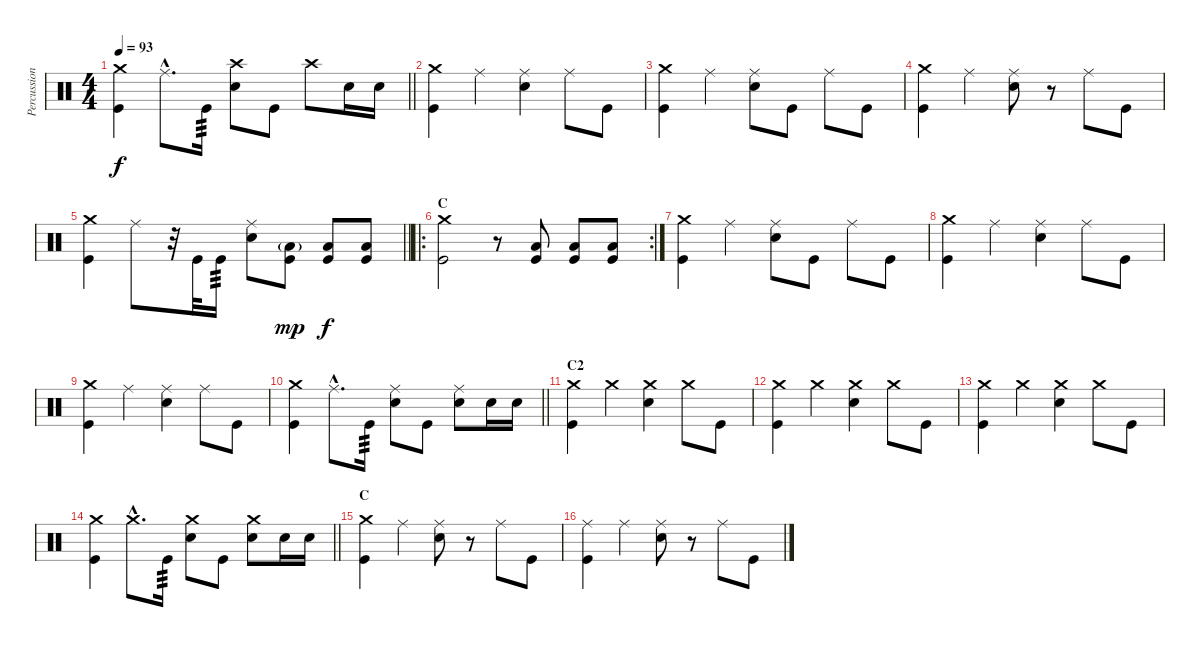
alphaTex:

\track ("Percussion" "Percussion") {instrument percussion}
\staff {score}
\articulation defaults
\ts (4 4)
\tempo 93
\clef neutral
\barLineRight lightlight
\ks c
("Kick (hit)" "Crash medium (hit)").4{dy f} "Ride (middle)"{hac}.8{d} "Kick (hit)".16{tp 3} ("Crash high (hit)" "Snare (hit) 2").8 "Kick (hit)".8 "Crash high (hit)".8 "Snare (hit) 2".16 "Snare (hit) 2".16 |
("Kick (hit)" "Crash medium (hit)").4 "Ride (middle)".4 ("Ride (middle)" "Snare (hit) 2").4 "Ride (middle)".8 "Kick (hit)".8 |
("Kick (hit)" "Crash medium (hit)").4 "Ride (middle)".4 ("Ride (middle)" "Snare (hit) 2").8 "Kick (hit)".8 "Ride (middle)".8 "Kick (hit)".8 |
("Kick (hit)" "Crash medium (hit)").4 "Ride (middle)".4 ("Ride (middle)" "Snare (hit) 2").8 r.8 "Ride (middle)".8 "Kick (hit)".8 |
\barLineRight lightlight
("Kick (hit)" "Crash medium (hit)").4 "Ride (middle)".8 r.32 "Kick (hit)".32 "Kick (hit)".16{tp 3} ("Ride (middle)" "Snare (hit) 2").8 ("Kick (hit)" "Low Floor Tom (hit)"{g}).8{dy mp} ("Kick (hit)" "Low Floor Tom (hit)").8{dy f} ("Kick (hit)" "Low Floor Tom (hit)").8 |
\ro
\rc 2
\section ("" "C")
("Kick (hit)" "Crash medium (hit)").2 r.8 ("Low Floor Tom (hit)" "Kick (hit)").8 ("Low Floor Tom (hit)" "Kick (hit)").8 ("Low Floor Tom (hit)" "Kick (hit)").8 |
("Kick (hit)" "Crash medium (hit)").4 "Ride (middle)".4 ("Snare (hit) 2" "Ride (middle)").8 "Kick (hit)".8 "Ride (middle)".8 "Kick (hit)".8 |
("Kick (hit)" "Crash medium (hit)").4 "Ride (middle)".4 ("Snare (hit) 2" "Ride (middle)").4 "Ride (middle)".8 "Kick (hit)".8 |
("Kick (hit)" "Crash medium (hit)").4 "Ride (middle)".4 ("Snare (hit) 2" "Ride (middle)").4 "Ride (middle)".8 "Kick (hit)".8 |
\barLineRight lightlight
("Kick (hit)" "Crash medium (hit)").4 "Ride (middle)"{hac}.8{d} "Kick (hit)".16{tp 3} ("Ride (middle)" "Snare (hit) 2").8 "Kick (hit)".8 ("Ride (middle)" "Snare (hit) 2").8 "Snare (hit) 2".16 "Snare (hit) 2".16 |
\section ("" "C2")
("Kick (hit)" "Crash medium (hit)").4 "Crash medium (hit)".4 ("Snare (hit) 2" "Crash medium (hit)").4 "Crash medium (hit)".8 "Kick (hit)".8 |
("Kick (hit)" "Crash medium (hit)").4 "Crash medium (hit)".4 ("Snare (hit) 2" "Crash medium (hit)").4 "Crash medium (hit)".8 "Kick (hit)".8 |
("Kick (hit)" "Crash medium (hit)").4 "Crash medium (hit)".4 ("Snare (hit) 2" "Crash medium (hit)").4 "Crash medium (hit)".8 "Kick (hit)".8 |
\barLineRight lightlight
("Kick (hit)" "Crash medium (hit)").4 "Crash medium (hit)"{hac}.8{d} "Kick (hit)".16{tp 3} ("Snare (hit) 2" "Crash medium (hit)").8 "Kick (hit)".8 ("Snare (hit) 2" "Crash medium (hit)").8 "Snare (hit) 2".16 "Snare (hit) 2".16 |
\section ("" "C")
("Kick (hit)" "Crash medium (hit)").4 "Ride (middle)".4 ("Snare (hit) 2" "Ride (middle)").8 r.8 "Ride (middle)".8 "Kick (hit)".8 |
("Kick (hit)" "Ride (middle)").4 "Ride (middle)".4 ("Snare (hit) 2" "Ride (middle)").8 r.8 "Ride (middle)".8 "Kick (hit)".8
